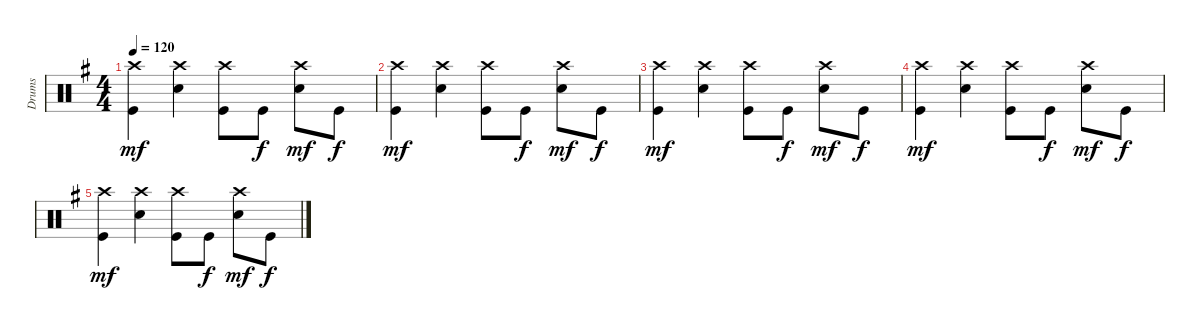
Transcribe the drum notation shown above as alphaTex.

\track ("Drums" "Drums") {instrument percussion}
\staff {score}
\articulation defaults
\ts (4 4)
\tempo 120
\clef neutral
\ks g
("Crash high (hit)" "Kick (hit)").4{dy mf} ("Crash high (hit)" "Snare (hit) 2").4 ("Crash high (hit)" "Kick (hit)").8 "Kick (hit)".8{dy f} ("Crash high (hit)" "Snare (hit) 2").8{dy mf} "Kick (hit)".8{dy f} |
("Crash high (hit)" "Kick (hit)").4{dy mf} ("Crash high (hit)" "Snare (hit) 2").4 ("Crash high (hit)" "Kick (hit)").8 "Kick (hit)".8{dy f} ("Crash high (hit)" "Snare (hit) 2").8{dy mf} "Kick (hit)".8{dy f} |
("Crash high (hit)" "Kick (hit)").4{dy mf volume 3} ("Crash high (hit)" "Snare (hit) 2").4 ("Crash high (hit)" "Kick (hit)").8 "Kick (hit)".8{dy f} ("Crash high (hit)" "Snare (hit) 2").8{dy mf} "Kick (hit)".8{dy f} |
("Crash high (hit)" "Kick (hit)").4{dy mf} ("Crash high (hit)" "Snare (hit) 2").4 ("Crash high (hit)" "Kick (hit)").8 "Kick (hit)".8{dy f} ("Crash high (hit)" "Snare (hit) 2").8{dy mf} "Kick (hit)".8{dy f} |
("Crash high (hit)" "Kick (hit)").4{dy mf} ("Crash high (hit)" "Snare (hit) 2").4 ("Crash high (hit)" "Kick (hit)").8 "Kick (hit)".8{dy f} ("Crash high (hit)" "Snare (hit) 2").8{dy mf} "Kick (hit)".8{dy f}
